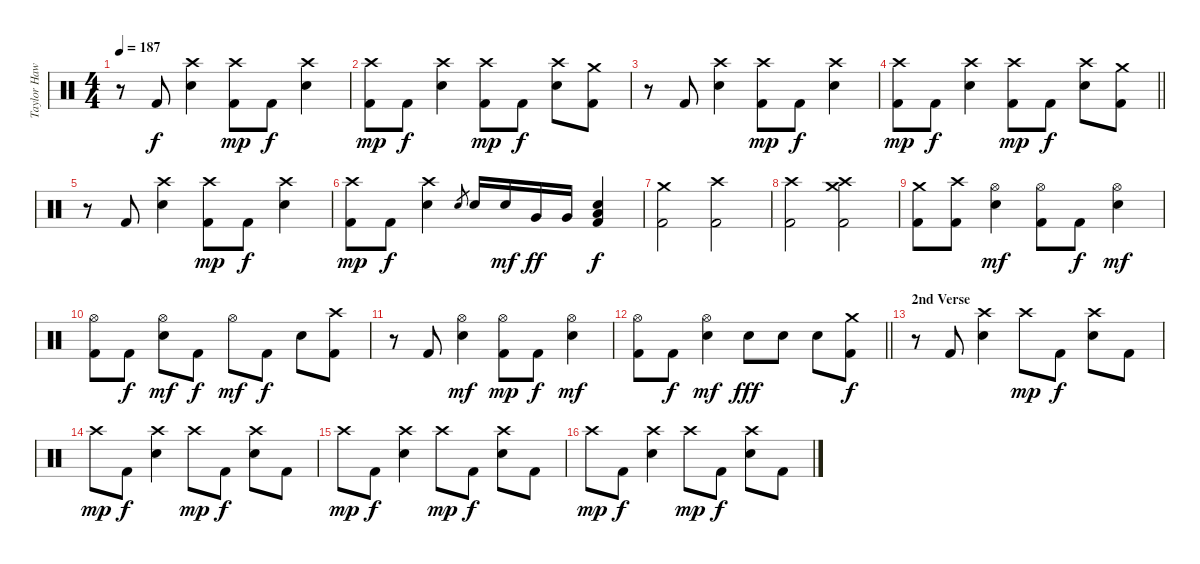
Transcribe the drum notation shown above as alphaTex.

\track ("Taylor Hawkins" "Taylor Haw") {instrument percussion}
\staff {score}
\articulation defaults
\ts (4 4)
\tempo 187
\clef neutral
\ks c
r.8{dy f} "Kick (hit) 2".8 ("Crash high (hit)" "Snare (hit) 2").4 ("Crash high (hit)" "Kick (hit) 2").8{dy mp} "Kick (hit) 2".8{dy f} ("Crash high (hit)" "Snare (hit) 2").4 |
("Crash high (hit)" "Kick (hit) 2").8{dy mp} "Kick (hit) 2".8{dy f} ("Crash high (hit)" "Snare (hit) 2").4 ("Crash high (hit)" "Kick (hit) 2").8{dy mp} "Kick (hit) 2".8{dy f} ("Crash high (hit)" "Snare (hit) 2").8 ("Crash medium (hit)" "Kick (hit) 2").8 |
r.8 "Kick (hit) 2".8 ("Crash high (hit)" "Snare (hit) 2").4 ("Crash high (hit)" "Kick (hit) 2").8{dy mp} "Kick (hit) 2".8{dy f} ("Crash high (hit)" "Snare (hit) 2").4 |
\barLineRight lightlight
("Crash high (hit)" "Kick (hit) 2").8{dy mp} "Kick (hit) 2".8{dy f} ("Crash high (hit)" "Snare (hit) 2").4 ("Crash high (hit)" "Kick (hit) 2").8{dy mp} "Kick (hit) 2".8{dy f} ("Crash high (hit)" "Snare (hit) 2").8 ("Crash medium (hit)" "Kick (hit) 2").8 |
r.8 "Kick (hit) 2".8 ("Crash high (hit)" "Snare (hit) 2").4 ("Crash high (hit)" "Kick (hit) 2").8{dy mp} "Kick (hit) 2".8{dy f} ("Crash high (hit)" "Snare (hit) 2").4 |
("Crash high (hit)" "Kick (hit) 2").8{dy mp} "Kick (hit) 2".8{dy f} ("Crash high (hit)" "Snare (hit) 2").4 "Snare (hit) 2".8{gr} "Snare (hit) 2".16 "Snare (hit) 2".16{dy mf} "Very Low Tom (hit)".16{dy ff} "Very Low Tom (hit)".16 ("Snare (hit) 2" "Low Floor Tom (hit)" "Kick (hit) 2").4{dy f} |
("Crash medium (hit)" "Kick (hit) 2").2 ("Crash high (hit)" "Kick (hit) 2").2 |
("Crash high (hit)" "Kick (hit) 2").2 ("Crash high (hit)" "Crash medium (hit)" "Kick (hit) 2").2 |
("Crash medium (hit)" "Kick (hit) 2").8 ("Crash high (hit)" "Kick (hit) 2").8 ("Hi-Hat (open)" "Snare (hit) 2").4{dy mf} ("Hi-Hat (open)" "Kick (hit) 2").8 "Kick (hit) 2".8{dy f} ("Hi-Hat (open)" "Snare (hit) 2").4{dy mf} |
("Hi-Hat (open)" "Kick (hit) 2").8 "Kick (hit) 2".8{dy f} ("Hi-Hat (open)" "Snare (hit) 2").8{dy mf} "Kick (hit) 2".8{dy f} "Hi-Hat (open)".8{dy mf} "Kick (hit) 2".8{dy f} "Snare (hit) 2".8 ("Crash high (hit)" "Kick (hit) 2").8 |
r.8 "Kick (hit) 2".8 ("Hi-Hat (open)" "Snare (hit) 2").4{dy mf} ("Hi-Hat (open)" "Kick (hit) 2").8{dy mp} "Kick (hit) 2".8{dy f} ("Hi-Hat (open)" "Snare (hit) 2").4{dy mf} |
\barLineRight lightlight
("Hi-Hat (open)" "Kick (hit) 2").8 "Kick (hit) 2".8{dy f} ("Hi-Hat (open)" "Snare (hit) 2").4{dy mf} "Snare (hit) 2".8{dy fff} "Snare (hit) 2".8 "Snare (hit) 2".8 ("Crash medium (hit)" "Kick (hit) 2").8{dy f} |
\section ("" "2nd Verse")
r.8 "Kick (hit) 2".8 ("Crash high (hit)" "Snare (hit) 2").4 "Crash high (hit)".8{dy mp} "Kick (hit) 2".8{dy f} ("Crash high (hit)" "Snare (hit) 2").8 "Kick (hit) 2".8 |
"Crash high (hit)".8{dy mp} "Kick (hit) 2".8{dy f} ("Crash high (hit)" "Snare (hit) 2").4 "Crash high (hit)".8{dy mp} "Kick (hit) 2".8{dy f} ("Crash high (hit)" "Snare (hit) 2").8 "Kick (hit) 2".8 |
"Crash high (hit)".8{dy mp} "Kick (hit) 2".8{dy f} ("Crash high (hit)" "Snare (hit) 2").4 "Crash high (hit)".8{dy mp} "Kick (hit) 2".8{dy f} ("Crash high (hit)" "Snare (hit) 2").8 "Kick (hit) 2".8 |
"Crash high (hit)".8{dy mp} "Kick (hit) 2".8{dy f} ("Crash high (hit)" "Snare (hit) 2").4 "Crash high (hit)".8{dy mp} "Kick (hit) 2".8{dy f} ("Crash high (hit)" "Snare (hit) 2").8 "Kick (hit) 2".8
